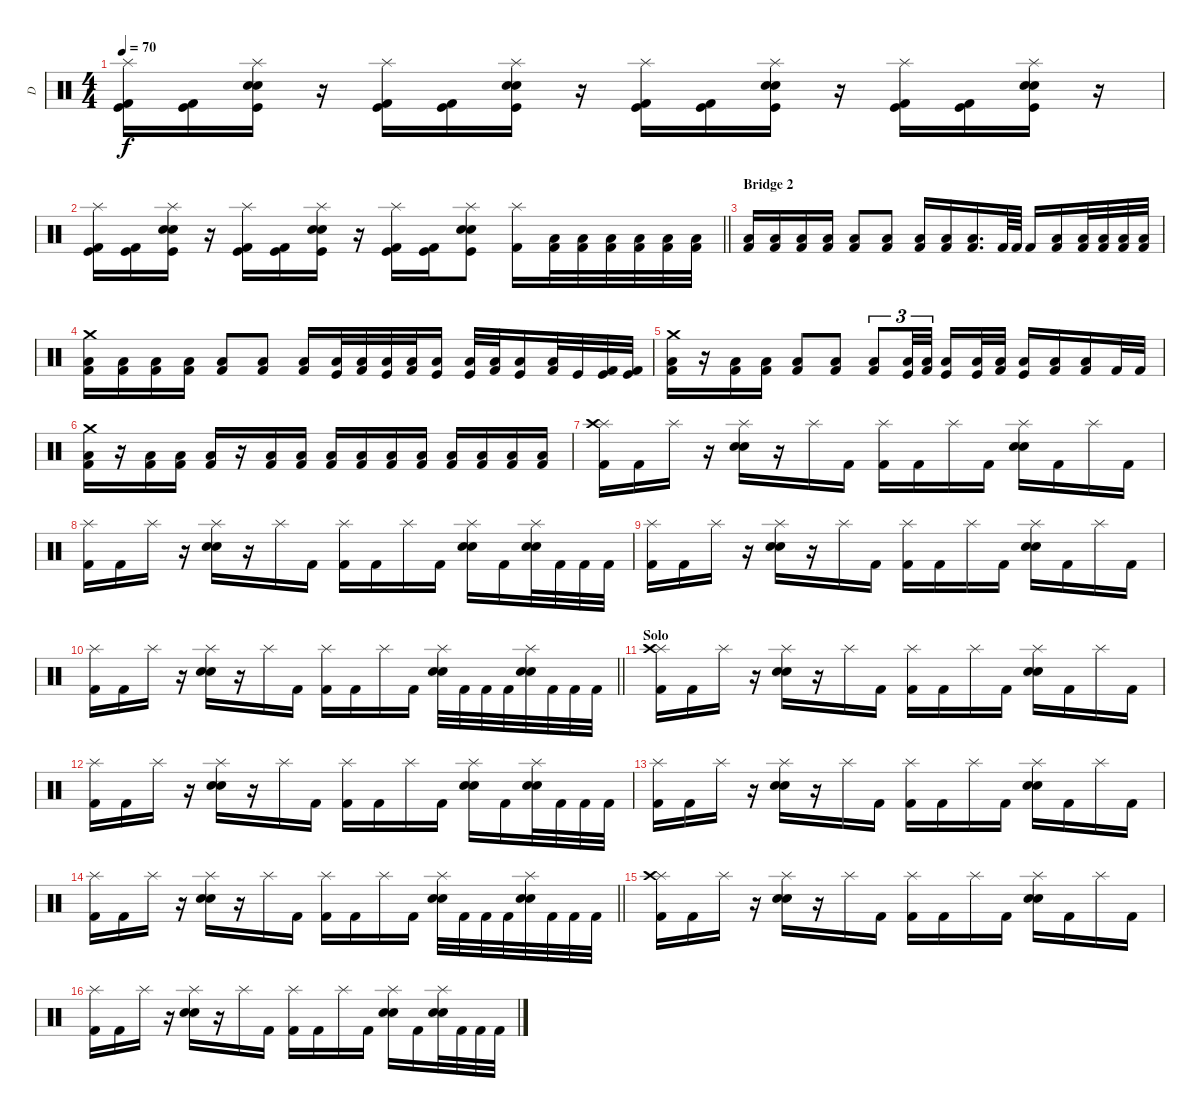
\track ("D" "D") {instrument percussion}
\staff {score}
\articulation defaults
\ts (4 4)
\tempo 70
\clef neutral
\ks c
("Splash (hit)" "Kick (hit) 2" "Kick (hit)").16{dy f} ("Kick (hit) 2" "Kick (hit)").16 ("Splash (hit)" "Electric Snare (hit)" "Electric Snare (hit)" "Kick (hit)").16 r.16 ("Splash (hit)" "Kick (hit) 2" "Kick (hit)").16 ("Kick (hit) 2" "Kick (hit)").16 ("Splash (hit)" "Electric Snare (hit)" "Electric Snare (hit)" "Kick (hit)").16 r.16 ("Splash (hit)" "Kick (hit) 2" "Kick (hit)").16 ("Kick (hit) 2" "Kick (hit)").16 ("Splash (hit)" "Electric Snare (hit)" "Electric Snare (hit)" "Kick (hit)").16 r.16 ("Splash (hit)" "Kick (hit) 2" "Kick (hit)").16 ("Kick (hit) 2" "Kick (hit)").16 ("Splash (hit)" "Electric Snare (hit)" "Electric Snare (hit)" "Kick (hit)").16 r.16 |
\barLineRight lightlight
("Splash (hit)" "Kick (hit) 2" "Kick (hit)").16 ("Kick (hit) 2" "Kick (hit)").16 ("Splash (hit)" "Electric Snare (hit)" "Electric Snare (hit)" "Kick (hit)").16 r.16 ("Splash (hit)" "Kick (hit) 2" "Kick (hit)").16 ("Kick (hit) 2" "Kick (hit)").16 ("Splash (hit)" "Electric Snare (hit)" "Electric Snare (hit)" "Kick (hit)").16 r.16 ("Splash (hit)" "Kick (hit) 2" "Kick (hit)").16 ("Kick (hit) 2" "Kick (hit)").16 ("Splash (hit)" "Electric Snare (hit)" "Electric Snare (hit)" "Kick (hit)").8 ("Splash (hit)" "Kick (hit) 2").16 ("Kick (hit) 2" "Low Floor Tom (hit)").32 ("Kick (hit) 2" "Low Floor Tom (hit)").32 ("Kick (hit) 2" "Low Floor Tom (hit)").32 ("Kick (hit) 2" "Low Floor Tom (hit)").32 ("Kick (hit) 2" "Low Floor Tom (hit)").32 ("Kick (hit) 2" "Low Floor Tom (hit)").32 |
\section ("" "Bridge 2")
("Kick (hit) 2" "Low Floor Tom (hit)").16 ("Kick (hit) 2" "Low Floor Tom (hit)").16 ("Kick (hit) 2" "Low Floor Tom (hit)").16 ("Kick (hit) 2" "Low Floor Tom (hit)").16 ("Kick (hit) 2" "Low Floor Tom (hit)").8 ("Kick (hit) 2" "Low Floor Tom (hit)").8 ("Kick (hit) 2" "Low Floor Tom (hit)").16 ("Kick (hit) 2" "Low Floor Tom (hit)").16 ("Kick (hit) 2" "Low Floor Tom (hit)").16{d} "Kick (hit) 2".64 "Kick (hit) 2".64 "Kick (hit) 2".16 ("Kick (hit) 2" "Low Floor Tom (hit)").16 ("Kick (hit) 2" "Low Floor Tom (hit)").32 ("Kick (hit) 2" "Low Floor Tom (hit)").32 ("Kick (hit) 2" "Low Floor Tom (hit)").32 ("Kick (hit) 2" "Low Floor Tom (hit)").32 |
("Crash medium (hit)" "Kick (hit) 2" "Low Floor Tom (hit)").16 ("Kick (hit) 2" "Low Floor Tom (hit)").16 ("Kick (hit) 2" "Low Floor Tom (hit)").16 ("Kick (hit) 2" "Low Floor Tom (hit)").16 ("Kick (hit) 2" "Low Floor Tom (hit)").8 ("Kick (hit) 2" "Low Floor Tom (hit)").8 ("Kick (hit) 2" "Low Floor Tom (hit)").16 ("Kick (hit)" "Low Floor Tom (hit)").32 ("Kick (hit) 2" "Low Floor Tom (hit)").32 ("Kick (hit)" "Low Floor Tom (hit)").32 ("Kick (hit) 2" "Low Floor Tom (hit)").32 ("Kick (hit)" "Low Floor Tom (hit)").16 ("Kick (hit)" "Low Floor Tom (hit)").32 ("Kick (hit) 2" "Low Floor Tom (hit)").32 ("Kick (hit)" "Low Floor Tom (hit)").16 ("Kick (hit) 2" "Low Floor Tom (hit)").32 "Kick (hit)".32 ("Kick (hit) 2" "Kick (hit)").32 ("Kick (hit) 2" "Kick (hit)").32 |
("Crash medium (hit)" "Kick (hit) 2" "Low Floor Tom (hit)").16 r.16 ("Kick (hit) 2" "Low Floor Tom (hit)").16 ("Kick (hit) 2" "Low Floor Tom (hit)").16 ("Kick (hit) 2" "Low Floor Tom (hit)").8 ("Kick (hit) 2" "Low Floor Tom (hit)").8 ("Kick (hit) 2" "Low Floor Tom (hit)").8{tu (3 2)} ("Kick (hit)" "Low Floor Tom (hit)").32{tu (3 2)} ("Kick (hit) 2" "Low Floor Tom (hit)").32{tu (3 2) beam splitsecondary} ("Kick (hit)" "Low Floor Tom (hit)").16 ("Kick (hit)" "Low Floor Tom (hit)").32 ("Kick (hit) 2" "Low Floor Tom (hit)").32 ("Kick (hit)" "Low Floor Tom (hit)").16 ("Kick (hit) 2" "Low Floor Tom (hit)").16 ("Kick (hit) 2" "Low Floor Tom (hit)").16 "Kick (hit) 2".32 "Kick (hit) 2".32 |
("Crash medium (hit)" "Kick (hit) 2" "Low Floor Tom (hit)").16 r.16 ("Kick (hit) 2" "Low Floor Tom (hit)").16 ("Kick (hit) 2" "Low Floor Tom (hit)").16 ("Kick (hit) 2" "Low Floor Tom (hit)").16 r.16 ("Kick (hit) 2" "Low Floor Tom (hit)").16 ("Kick (hit) 2" "Low Floor Tom (hit)").16 ("Kick (hit) 2" "Low Floor Tom (hit)").16 ("Kick (hit) 2" "Low Floor Tom (hit)").16 ("Kick (hit) 2" "Low Floor Tom (hit)").16 ("Kick (hit) 2" "Low Floor Tom (hit)").16 ("Kick (hit) 2" "Low Floor Tom (hit)").16 ("Kick (hit) 2" "Low Floor Tom (hit)").16 ("Kick (hit) 2" "Low Floor Tom (hit)").16 ("Kick (hit) 2" "Low Floor Tom (hit)").16 |
("Splash (hit)" "Crash high (hit)" "Kick (hit) 2").16 "Kick (hit) 2".16 "Splash (hit)".16 r.16 ("Splash (hit)" "Electric Snare (hit)" "Electric Snare (hit)").16 r.16 "Splash (hit)".16 "Kick (hit) 2".16 ("Splash (hit)" "Kick (hit) 2").16 "Kick (hit) 2".16 "Splash (hit)".16 "Kick (hit) 2".16 ("Splash (hit)" "Electric Snare (hit)" "Electric Snare (hit)").16 "Kick (hit) 2".16 "Splash (hit)".16 "Kick (hit) 2".16 |
("Splash (hit)" "Kick (hit) 2").16 "Kick (hit) 2".16 "Splash (hit)".16 r.16 ("Splash (hit)" "Electric Snare (hit)" "Electric Snare (hit)").16 r.16 "Splash (hit)".16 "Kick (hit) 2".16 ("Splash (hit)" "Kick (hit) 2").16 "Kick (hit) 2".16 "Splash (hit)".16 "Kick (hit) 2".16 ("Splash (hit)" "Electric Snare (hit)" "Electric Snare (hit)").16 "Kick (hit) 2".16 ("Splash (hit)" "Electric Snare (hit)" "Electric Snare (hit)").32 "Kick (hit) 2".32 "Kick (hit) 2".32 "Kick (hit) 2".32 |
("Splash (hit)" "Kick (hit) 2").16 "Kick (hit) 2".16 "Splash (hit)".16 r.16 ("Splash (hit)" "Electric Snare (hit)" "Electric Snare (hit)").16 r.16 "Splash (hit)".16 "Kick (hit) 2".16 ("Splash (hit)" "Kick (hit) 2").16 "Kick (hit) 2".16 "Splash (hit)".16 "Kick (hit) 2".16 ("Splash (hit)" "Electric Snare (hit)" "Electric Snare (hit)").16 "Kick (hit) 2".16 "Splash (hit)".16 "Kick (hit) 2".16 |
\barLineRight lightlight
("Splash (hit)" "Kick (hit) 2").16 "Kick (hit) 2".16 "Splash (hit)".16 r.16 ("Splash (hit)" "Electric Snare (hit)" "Electric Snare (hit)").16 r.16 "Splash (hit)".16 "Kick (hit) 2".16 ("Splash (hit)" "Kick (hit) 2").16 "Kick (hit) 2".16 "Splash (hit)".16 "Kick (hit) 2".16 ("Splash (hit)" "Electric Snare (hit)" "Electric Snare (hit)").32 "Kick (hit) 2".32 "Kick (hit) 2".32 "Kick (hit) 2".32 ("Splash (hit)" "Electric Snare (hit)" "Electric Snare (hit)").32 "Kick (hit) 2".32 "Kick (hit) 2".32 "Kick (hit) 2".32 |
\section ("" "Solo")
("Splash (hit)" "Crash high (hit)" "Kick (hit) 2").16 "Kick (hit) 2".16 "Splash (hit)".16 r.16 ("Splash (hit)" "Electric Snare (hit)" "Electric Snare (hit)").16 r.16 "Splash (hit)".16 "Kick (hit) 2".16 ("Splash (hit)" "Kick (hit) 2").16 "Kick (hit) 2".16 "Splash (hit)".16 "Kick (hit) 2".16 ("Splash (hit)" "Electric Snare (hit)" "Electric Snare (hit)").16 "Kick (hit) 2".16 "Splash (hit)".16 "Kick (hit) 2".16 |
("Splash (hit)" "Kick (hit) 2").16 "Kick (hit) 2".16 "Splash (hit)".16 r.16 ("Splash (hit)" "Electric Snare (hit)" "Electric Snare (hit)").16 r.16 "Splash (hit)".16 "Kick (hit) 2".16 ("Splash (hit)" "Kick (hit) 2").16 "Kick (hit) 2".16 "Splash (hit)".16 "Kick (hit) 2".16 ("Splash (hit)" "Electric Snare (hit)" "Electric Snare (hit)").16 "Kick (hit) 2".16 ("Splash (hit)" "Electric Snare (hit)" "Electric Snare (hit)").32 "Kick (hit) 2".32 "Kick (hit) 2".32 "Kick (hit) 2".32 |
("Splash (hit)" "Kick (hit) 2").16 "Kick (hit) 2".16 "Splash (hit)".16 r.16 ("Splash (hit)" "Electric Snare (hit)" "Electric Snare (hit)").16 r.16 "Splash (hit)".16 "Kick (hit) 2".16 ("Splash (hit)" "Kick (hit) 2").16 "Kick (hit) 2".16 "Splash (hit)".16 "Kick (hit) 2".16 ("Splash (hit)" "Electric Snare (hit)" "Electric Snare (hit)").16 "Kick (hit) 2".16 "Splash (hit)".16 "Kick (hit) 2".16 |
\barLineRight lightlight
("Splash (hit)" "Kick (hit) 2").16 "Kick (hit) 2".16 "Splash (hit)".16 r.16 ("Splash (hit)" "Electric Snare (hit)" "Electric Snare (hit)").16 r.16 "Splash (hit)".16 "Kick (hit) 2".16 ("Splash (hit)" "Kick (hit) 2").16 "Kick (hit) 2".16 "Splash (hit)".16 "Kick (hit) 2".16 ("Splash (hit)" "Electric Snare (hit)" "Electric Snare (hit)").32 "Kick (hit) 2".32 "Kick (hit) 2".32 "Kick (hit) 2".32 ("Splash (hit)" "Electric Snare (hit)" "Electric Snare (hit)").32 "Kick (hit) 2".32 "Kick (hit) 2".32 "Kick (hit) 2".32 |
("Splash (hit)" "Crash high (hit)" "Kick (hit) 2").16 "Kick (hit) 2".16 "Splash (hit)".16 r.16 ("Splash (hit)" "Electric Snare (hit)" "Electric Snare (hit)").16 r.16 "Splash (hit)".16 "Kick (hit) 2".16 ("Splash (hit)" "Kick (hit) 2").16 "Kick (hit) 2".16 "Splash (hit)".16 "Kick (hit) 2".16 ("Splash (hit)" "Electric Snare (hit)" "Electric Snare (hit)").16 "Kick (hit) 2".16 "Splash (hit)".16 "Kick (hit) 2".16 |
("Splash (hit)" "Kick (hit) 2").16 "Kick (hit) 2".16 "Splash (hit)".16 r.16 ("Splash (hit)" "Electric Snare (hit)" "Electric Snare (hit)").16 r.16 "Splash (hit)".16 "Kick (hit) 2".16 ("Splash (hit)" "Kick (hit) 2").16 "Kick (hit) 2".16 "Splash (hit)".16 "Kick (hit) 2".16 ("Splash (hit)" "Electric Snare (hit)" "Electric Snare (hit)").16 "Kick (hit) 2".16 ("Splash (hit)" "Electric Snare (hit)" "Electric Snare (hit)").32 "Kick (hit) 2".32 "Kick (hit) 2".32 "Kick (hit) 2".32
